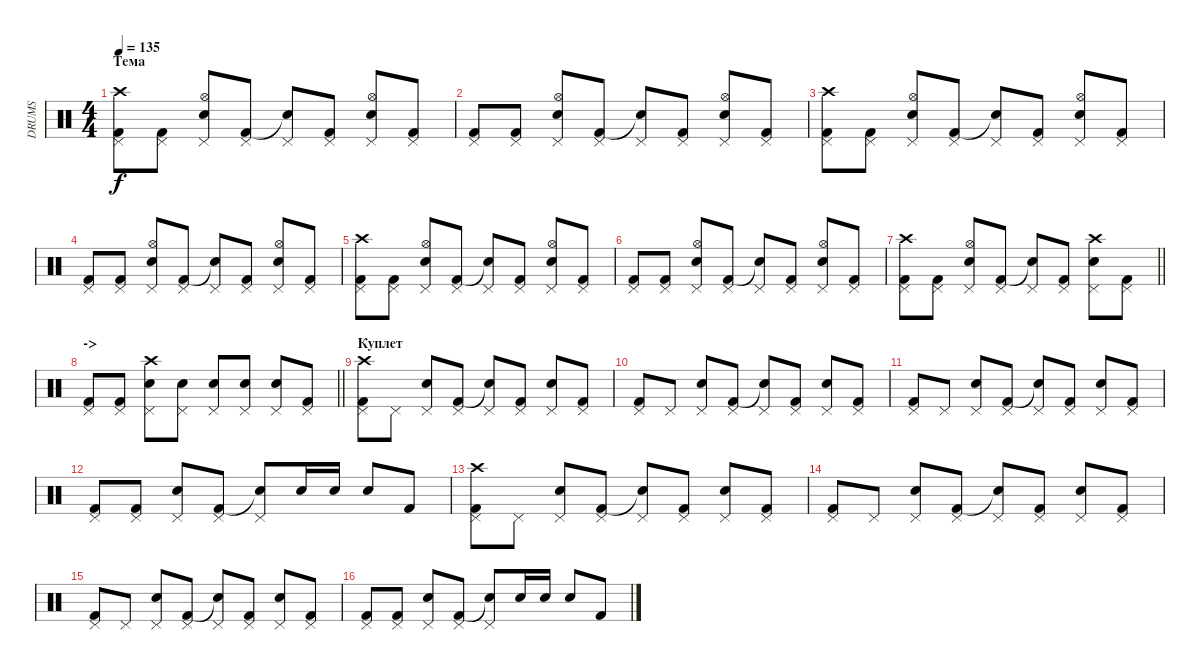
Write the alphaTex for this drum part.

\track ("DRUMS" "DRUMS") {instrument percussion}
\staff {score}
\articulation defaults
\ts (4 4)
\section ("" "Тема")
\tempo 135
\clef neutral
\ks c
("Crash high (hit)" "Pedal Hi-Hat (hit)" "Kick (hit) 2").8{dy f} ("Pedal Hi-Hat (hit)" "Kick (hit) 2").8 ("Hi-Hat (open)" "Pedal Hi-Hat (hit)" "Snare (hit) 2").8 ("Pedal Hi-Hat (hit)" "Kick (hit) 2").8 ("Pedal Hi-Hat (hit)" "Snare (hit)"{t}).8 ("Pedal Hi-Hat (hit)" "Kick (hit) 2").8 ("Hi-Hat (open)" "Pedal Hi-Hat (hit)" "Snare (hit) 2").8 ("Pedal Hi-Hat (hit)" "Kick (hit) 2").8 |
("Pedal Hi-Hat (hit)" "Kick (hit) 2").8 ("Pedal Hi-Hat (hit)" "Kick (hit) 2").8 ("Hi-Hat (open)" "Pedal Hi-Hat (hit)" "Snare (hit) 2").8 ("Pedal Hi-Hat (hit)" "Kick (hit) 2").8 ("Pedal Hi-Hat (hit)" "Snare (hit)"{t}).8 ("Pedal Hi-Hat (hit)" "Kick (hit) 2").8 ("Hi-Hat (open)" "Pedal Hi-Hat (hit)" "Snare (hit) 2").8 ("Pedal Hi-Hat (hit)" "Kick (hit) 2").8 |
("Crash high (hit)" "Pedal Hi-Hat (hit)" "Kick (hit) 2").8 ("Pedal Hi-Hat (hit)" "Kick (hit) 2").8 ("Hi-Hat (open)" "Pedal Hi-Hat (hit)" "Snare (hit) 2").8 ("Pedal Hi-Hat (hit)" "Kick (hit) 2").8 ("Pedal Hi-Hat (hit)" "Snare (hit)"{t}).8 ("Pedal Hi-Hat (hit)" "Kick (hit) 2").8 ("Hi-Hat (open)" "Pedal Hi-Hat (hit)" "Snare (hit) 2").8 ("Pedal Hi-Hat (hit)" "Kick (hit) 2").8 |
("Pedal Hi-Hat (hit)" "Kick (hit) 2").8 ("Pedal Hi-Hat (hit)" "Kick (hit) 2").8 ("Hi-Hat (open)" "Pedal Hi-Hat (hit)" "Snare (hit) 2").8 ("Pedal Hi-Hat (hit)" "Kick (hit) 2").8 ("Pedal Hi-Hat (hit)" "Snare (hit)"{t}).8 ("Pedal Hi-Hat (hit)" "Kick (hit) 2").8 ("Hi-Hat (open)" "Pedal Hi-Hat (hit)" "Snare (hit) 2").8 ("Pedal Hi-Hat (hit)" "Kick (hit) 2").8 |
("Crash high (hit)" "Pedal Hi-Hat (hit)" "Kick (hit) 2").8 ("Pedal Hi-Hat (hit)" "Kick (hit) 2").8 ("Hi-Hat (open)" "Pedal Hi-Hat (hit)" "Snare (hit) 2").8 ("Pedal Hi-Hat (hit)" "Kick (hit) 2").8 ("Pedal Hi-Hat (hit)" "Snare (hit)"{t}).8 ("Pedal Hi-Hat (hit)" "Kick (hit) 2").8 ("Hi-Hat (open)" "Pedal Hi-Hat (hit)" "Snare (hit) 2").8 ("Pedal Hi-Hat (hit)" "Kick (hit) 2").8 |
("Pedal Hi-Hat (hit)" "Kick (hit) 2").8 ("Pedal Hi-Hat (hit)" "Kick (hit) 2").8 ("Hi-Hat (open)" "Pedal Hi-Hat (hit)" "Snare (hit) 2").8 ("Pedal Hi-Hat (hit)" "Kick (hit) 2").8 ("Pedal Hi-Hat (hit)" "Snare (hit)"{t}).8 ("Pedal Hi-Hat (hit)" "Kick (hit) 2").8 ("Hi-Hat (open)" "Pedal Hi-Hat (hit)" "Snare (hit) 2").8 ("Pedal Hi-Hat (hit)" "Kick (hit) 2").8 |
\barLineRight lightlight
("Crash high (hit)" "Pedal Hi-Hat (hit)" "Kick (hit) 2").8 ("Pedal Hi-Hat (hit)" "Kick (hit) 2").8 ("Hi-Hat (open)" "Pedal Hi-Hat (hit)" "Snare (hit) 2").8 ("Pedal Hi-Hat (hit)" "Kick (hit) 2").8 ("Pedal Hi-Hat (hit)" "Snare (hit)"{t}).8 ("Pedal Hi-Hat (hit)" "Kick (hit) 2").8 ("Crash high (hit)" "Pedal Hi-Hat (hit)" "Snare (hit) 2").8 ("Pedal Hi-Hat (hit)" "Kick (hit) 2").8 |
\section ("" "->")
\barLineRight lightlight
("Pedal Hi-Hat (hit)" "Kick (hit) 2").8 ("Pedal Hi-Hat (hit)" "Kick (hit) 2").8 ("Crash high (hit)" "Pedal Hi-Hat (hit)" "Snare (hit) 2").8 ("Pedal Hi-Hat (hit)" "Snare (hit) 2").8 ("Pedal Hi-Hat (hit)" "Snare (hit) 2").8 ("Pedal Hi-Hat (hit)" "Snare (hit) 2").8 ("Pedal Hi-Hat (hit)" "Snare (hit) 2").8 ("Pedal Hi-Hat (hit)" "Kick (hit) 2").8 |
\section ("" "Куплет")
("Crash high (hit)" "Pedal Hi-Hat (hit)" "Kick (hit) 2").8 "Pedal Hi-Hat (hit)".8 ("Pedal Hi-Hat (hit)" "Snare (hit) 2").8 ("Pedal Hi-Hat (hit)" "Kick (hit) 2").8 ("Pedal Hi-Hat (hit)" "Snare (hit)"{t}).8 ("Pedal Hi-Hat (hit)" "Kick (hit) 2").8 ("Pedal Hi-Hat (hit)" "Snare (hit) 2").8 ("Pedal Hi-Hat (hit)" "Kick (hit) 2").8 |
("Pedal Hi-Hat (hit)" "Kick (hit) 2").8 "Pedal Hi-Hat (hit)".8 ("Pedal Hi-Hat (hit)" "Snare (hit) 2").8 ("Pedal Hi-Hat (hit)" "Kick (hit) 2").8 ("Pedal Hi-Hat (hit)" "Snare (hit)"{t}).8 ("Pedal Hi-Hat (hit)" "Kick (hit) 2").8 ("Pedal Hi-Hat (hit)" "Snare (hit) 2").8 ("Pedal Hi-Hat (hit)" "Kick (hit) 2").8 |
("Pedal Hi-Hat (hit)" "Kick (hit) 2").8 "Pedal Hi-Hat (hit)".8 ("Pedal Hi-Hat (hit)" "Snare (hit) 2").8 ("Pedal Hi-Hat (hit)" "Kick (hit) 2").8 ("Pedal Hi-Hat (hit)" "Snare (hit)"{t}).8 ("Pedal Hi-Hat (hit)" "Kick (hit) 2").8 ("Pedal Hi-Hat (hit)" "Snare (hit) 2").8 ("Pedal Hi-Hat (hit)" "Kick (hit) 2").8 |
("Pedal Hi-Hat (hit)" "Kick (hit) 2").8 ("Pedal Hi-Hat (hit)" "Kick (hit) 2").8 ("Pedal Hi-Hat (hit)" "Snare (hit) 2").8 ("Pedal Hi-Hat (hit)" "Kick (hit) 2").8 ("Pedal Hi-Hat (hit)" "Snare (hit)"{t}).8 "Snare (hit) 2".16 "Snare (hit) 2".16 "Snare (hit) 2".8 "Kick (hit) 2".8 |
("Crash high (hit)" "Pedal Hi-Hat (hit)" "Kick (hit) 2").8 "Pedal Hi-Hat (hit)".8 ("Pedal Hi-Hat (hit)" "Snare (hit) 2").8 ("Pedal Hi-Hat (hit)" "Kick (hit) 2").8 ("Pedal Hi-Hat (hit)" "Snare (hit)"{t}).8 ("Pedal Hi-Hat (hit)" "Kick (hit) 2").8 ("Pedal Hi-Hat (hit)" "Snare (hit) 2").8 ("Pedal Hi-Hat (hit)" "Kick (hit) 2").8 |
("Pedal Hi-Hat (hit)" "Kick (hit) 2").8 "Pedal Hi-Hat (hit)".8 ("Pedal Hi-Hat (hit)" "Snare (hit) 2").8 ("Pedal Hi-Hat (hit)" "Kick (hit) 2").8 ("Pedal Hi-Hat (hit)" "Snare (hit)"{t}).8 ("Pedal Hi-Hat (hit)" "Kick (hit) 2").8 ("Pedal Hi-Hat (hit)" "Snare (hit) 2").8 ("Pedal Hi-Hat (hit)" "Kick (hit) 2").8 |
("Pedal Hi-Hat (hit)" "Kick (hit) 2").8 "Pedal Hi-Hat (hit)".8 ("Pedal Hi-Hat (hit)" "Snare (hit) 2").8 ("Pedal Hi-Hat (hit)" "Kick (hit) 2").8 ("Pedal Hi-Hat (hit)" "Snare (hit)"{t}).8 ("Pedal Hi-Hat (hit)" "Kick (hit) 2").8 ("Pedal Hi-Hat (hit)" "Snare (hit) 2").8 ("Pedal Hi-Hat (hit)" "Kick (hit) 2").8 |
("Pedal Hi-Hat (hit)" "Kick (hit) 2").8 ("Pedal Hi-Hat (hit)" "Kick (hit) 2").8 ("Pedal Hi-Hat (hit)" "Snare (hit) 2").8 ("Pedal Hi-Hat (hit)" "Kick (hit) 2").8 ("Pedal Hi-Hat (hit)" "Snare (hit)"{t}).8 "Snare (hit) 2".16 "Snare (hit) 2".16 "Snare (hit) 2".8 "Kick (hit) 2".8
